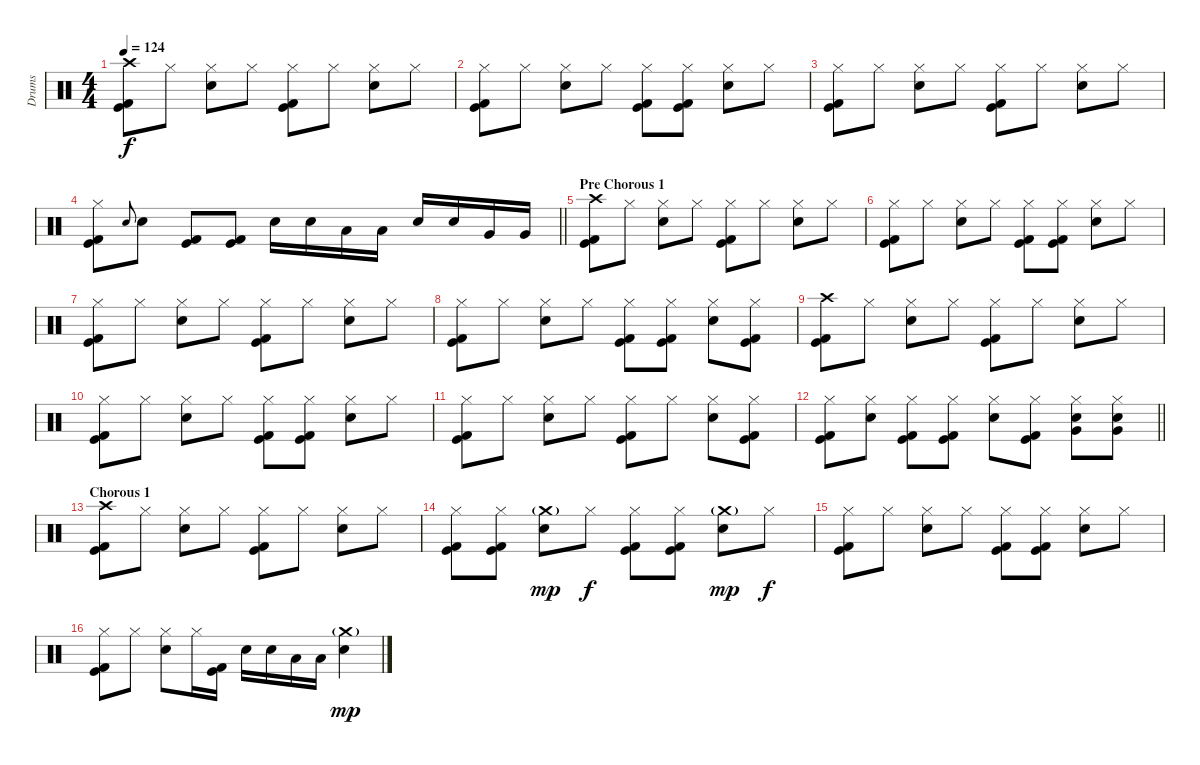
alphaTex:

\track ("Drums" "Drums") {instrument percussion}
\staff {score}
\articulation defaults
\ts (4 4)
\tempo 124
\clef neutral
\ks c
("Crash high (hit)" "Kick (hit)" "Kick (hit) 2").8{dy f} "Hi-Hat (closed)".8 ("Hi-Hat (closed)" "Electric Snare (hit)").8 "Hi-Hat (closed)".8 ("Hi-Hat (closed)" "Kick (hit)" "Kick (hit) 2").8 "Hi-Hat (closed)".8 ("Hi-Hat (closed)" "Electric Snare (hit)").8 "Hi-Hat (closed)".8 |
("Hi-Hat (closed)" "Kick (hit)" "Kick (hit) 2").8 "Hi-Hat (closed)".8 ("Hi-Hat (closed)" "Electric Snare (hit)").8 "Hi-Hat (closed)".8 ("Hi-Hat (closed)" "Kick (hit)" "Kick (hit) 2").8 ("Hi-Hat (closed)" "Kick (hit)" "Kick (hit) 2").8 ("Hi-Hat (closed)" "Electric Snare (hit)").8 "Hi-Hat (closed)".8 |
("Hi-Hat (closed)" "Kick (hit)" "Kick (hit) 2").8 "Hi-Hat (closed)".8 ("Hi-Hat (closed)" "Electric Snare (hit)").8 "Hi-Hat (closed)".8 ("Hi-Hat (closed)" "Kick (hit)" "Kick (hit) 2").8 "Hi-Hat (closed)".8 ("Hi-Hat (closed)" "Electric Snare (hit)").8 "Hi-Hat (closed)".8 |
\barLineRight lightlight
("Hi-Hat (closed)" "Kick (hit)" "Kick (hit) 2").8 "Electric Snare (hit)".8{gr onbeat} "Electric Snare (hit)".8 ("Kick (hit)" "Kick (hit) 2").8 ("Kick (hit)" "Kick (hit) 2").8 "Electric Snare (hit)".16 "Electric Snare (hit)".16 "Low Tom (hit)".16 "Low Tom (hit)".16 "Electric Snare (hit)".16 "Electric Snare (hit)".16 "Very Low Tom (hit)".16 "Very Low Tom (hit)".16 |
\section ("" "Pre Chorous 1")
("Crash high (hit)" "Kick (hit)" "Kick (hit) 2").8 "Hi-Hat (closed)".8 ("Hi-Hat (closed)" "Electric Snare (hit)").8 "Hi-Hat (closed)".8 ("Hi-Hat (closed)" "Kick (hit)" "Kick (hit) 2").8 "Hi-Hat (closed)".8 ("Hi-Hat (closed)" "Electric Snare (hit)").8 "Hi-Hat (closed)".8 |
("Hi-Hat (closed)" "Kick (hit)" "Kick (hit) 2").8 "Hi-Hat (closed)".8 ("Hi-Hat (closed)" "Electric Snare (hit)").8 "Hi-Hat (closed)".8 ("Hi-Hat (closed)" "Kick (hit)" "Kick (hit) 2").8 ("Hi-Hat (closed)" "Kick (hit)" "Kick (hit) 2").8 ("Hi-Hat (closed)" "Electric Snare (hit)").8 "Hi-Hat (closed)".8 |
("Hi-Hat (closed)" "Kick (hit)" "Kick (hit) 2").8 "Hi-Hat (closed)".8 ("Hi-Hat (closed)" "Electric Snare (hit)").8 "Hi-Hat (closed)".8 ("Hi-Hat (closed)" "Kick (hit)" "Kick (hit) 2").8 "Hi-Hat (closed)".8 ("Hi-Hat (closed)" "Electric Snare (hit)").8 "Hi-Hat (closed)".8 |
("Hi-Hat (closed)" "Kick (hit)" "Kick (hit) 2").8 "Hi-Hat (closed)".8 ("Hi-Hat (closed)" "Electric Snare (hit)").8 "Hi-Hat (closed)".8 ("Hi-Hat (closed)" "Kick (hit)" "Kick (hit) 2").8 ("Hi-Hat (closed)" "Kick (hit)" "Kick (hit) 2").8 ("Hi-Hat (closed)" "Electric Snare (hit)").8 ("Hi-Hat (closed)" "Kick (hit)" "Kick (hit) 2").8 |
("Crash high (hit)" "Kick (hit)" "Kick (hit) 2").8 "Hi-Hat (closed)".8 ("Hi-Hat (closed)" "Electric Snare (hit)").8 "Hi-Hat (closed)".8 ("Hi-Hat (closed)" "Kick (hit)" "Kick (hit) 2").8 "Hi-Hat (closed)".8 ("Hi-Hat (closed)" "Electric Snare (hit)").8 "Hi-Hat (closed)".8 |
("Hi-Hat (closed)" "Kick (hit)" "Kick (hit) 2").8 "Hi-Hat (closed)".8 ("Hi-Hat (closed)" "Electric Snare (hit)").8 "Hi-Hat (closed)".8 ("Hi-Hat (closed)" "Kick (hit)" "Kick (hit) 2").8 ("Hi-Hat (closed)" "Kick (hit)" "Kick (hit) 2").8 ("Hi-Hat (closed)" "Electric Snare (hit)").8 "Hi-Hat (closed)".8 |
("Hi-Hat (closed)" "Kick (hit)" "Kick (hit) 2").8 "Hi-Hat (closed)".8 ("Hi-Hat (closed)" "Electric Snare (hit)").8 "Hi-Hat (closed)".8 ("Hi-Hat (closed)" "Kick (hit)" "Kick (hit) 2").8 "Hi-Hat (closed)".8 ("Hi-Hat (closed)" "Electric Snare (hit)").8 ("Hi-Hat (closed)" "Kick (hit)" "Kick (hit) 2").8 |
\barLineRight lightlight
("Hi-Hat (closed)" "Kick (hit)" "Kick (hit) 2").8 ("Hi-Hat (closed)" "Electric Snare (hit)").8 ("Hi-Hat (closed)" "Kick (hit)" "Kick (hit) 2").8 ("Hi-Hat (closed)" "Kick (hit)" "Kick (hit) 2").8 ("Hi-Hat (closed)" "Electric Snare (hit)").8 ("Hi-Hat (closed)" "Kick (hit)" "Kick (hit) 2").8 ("Hi-Hat (closed)" "Electric Snare (hit)" "Very Low Tom (hit)").8 ("Hi-Hat (closed)" "Electric Snare (hit)" "Very Low Tom (hit)").8 |
\section ("" "Chorous 1")
("Crash high (hit)" "Kick (hit)" "Kick (hit) 2").8 "Hi-Hat (closed)".8 ("Hi-Hat (closed)" "Electric Snare (hit)").8 "Hi-Hat (closed)".8 ("Hi-Hat (closed)" "Kick (hit)" "Kick (hit) 2").8 "Hi-Hat (closed)".8 ("Hi-Hat (closed)" "Electric Snare (hit)").8 "Hi-Hat (closed)".8 |
("Hi-Hat (closed)" "Kick (hit)" "Kick (hit) 2").8 ("Hi-Hat (closed)" "Kick (hit)" "Kick (hit) 2").8 ("Crash medium (hit)"{g} "Electric Snare (hit)").8{dy mp} "Hi-Hat (closed)".8{dy f} ("Hi-Hat (closed)" "Kick (hit)" "Kick (hit) 2").8 ("Hi-Hat (closed)" "Kick (hit)" "Kick (hit) 2").8 ("Crash medium (hit)"{g} "Electric Snare (hit)").8{dy mp} "Hi-Hat (closed)".8{dy f} |
("Hi-Hat (closed)" "Kick (hit)" "Kick (hit) 2").8 "Hi-Hat (closed)".8 ("Hi-Hat (closed)" "Electric Snare (hit)").8 "Hi-Hat (closed)".8 ("Hi-Hat (closed)" "Kick (hit)" "Kick (hit) 2").8 ("Hi-Hat (closed)" "Kick (hit)" "Kick (hit) 2").8 ("Hi-Hat (closed)" "Electric Snare (hit)").8 "Hi-Hat (closed)".8 |
("Hi-Hat (closed)" "Kick (hit)" "Kick (hit) 2").8 "Hi-Hat (closed)".8 ("Hi-Hat (closed)" "Electric Snare (hit)").8 "Hi-Hat (closed)".16 ("Kick (hit)" "Kick (hit) 2").16 "Electric Snare (hit)".16 "Electric Snare (hit)".16 "Low Tom (hit)".16 "Low Tom (hit)".16 ("Crash medium (hit)"{g} "Electric Snare (hit)").4{dy mp}
